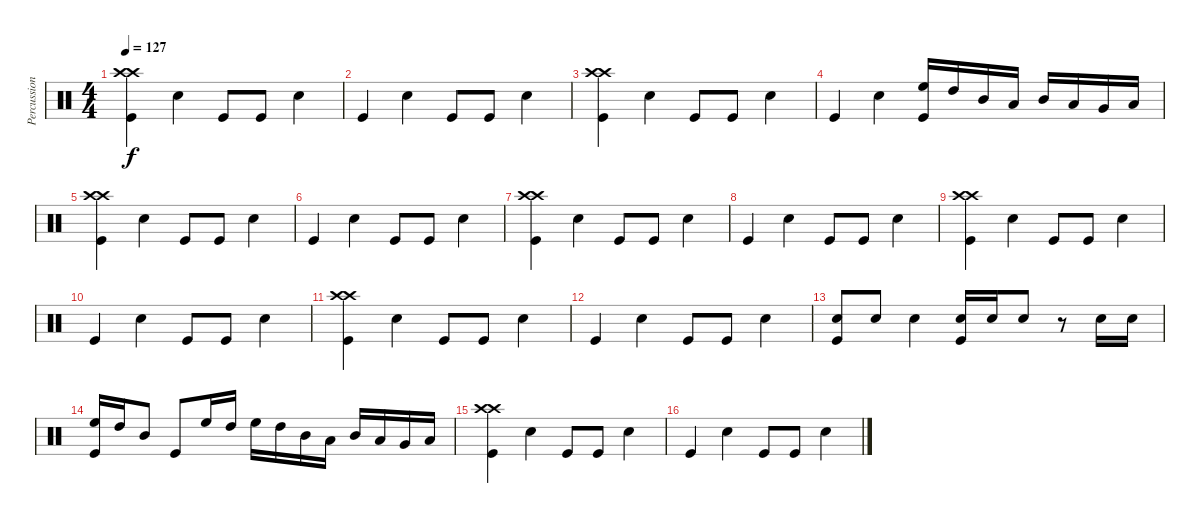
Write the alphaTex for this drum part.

\track ("Percussion" "Percussion") {instrument percussion}
\staff {score}
\articulation defaults
\ts (4 4)
\tempo 127
\clef neutral
\ks c
("Crash high (hit)" "Crash high (hit)" "Kick (hit)").4{dy f} "Snare (hit) 2".4 "Kick (hit)".8 "Kick (hit)".8 "Snare (hit) 2".4 |
"Kick (hit)".4 "Snare (hit) 2".4 "Kick (hit)".8 "Kick (hit)".8 "Snare (hit) 2".4 |
("Crash high (hit)" "Crash high (hit)" "Kick (hit)").4 "Snare (hit) 2".4 "Kick (hit)".8 "Kick (hit)".8 "Snare (hit) 2".4 |
"Kick (hit)".4 "Snare (hit) 2".4 ("High Floor Tom (hit)" "Kick (hit)").16 "High Tom (hit)".16 "Mid Tom (hit)".16 "Low Tom (hit)".16 "Mid Tom (hit)".16 "Low Tom (hit)".16 "Very Low Tom (hit)".16 "Low Floor Tom (hit)".16 |
("Crash high (hit)" "Crash high (hit)" "Kick (hit)").4 "Snare (hit) 2".4 "Kick (hit)".8 "Kick (hit)".8 "Snare (hit) 2".4 |
"Kick (hit)".4 "Snare (hit) 2".4 "Kick (hit)".8 "Kick (hit)".8 "Snare (hit) 2".4 |
("Crash high (hit)" "Crash high (hit)" "Kick (hit)").4 "Snare (hit) 2".4 "Kick (hit)".8 "Kick (hit)".8 "Snare (hit) 2".4 |
"Kick (hit)".4 "Snare (hit) 2".4 "Kick (hit)".8 "Kick (hit)".8 "Snare (hit) 2".4 |
("Crash high (hit)" "Crash high (hit)" "Kick (hit)").4 "Snare (hit) 2".4 "Kick (hit)".8 "Kick (hit)".8 "Snare (hit) 2".4 |
"Kick (hit)".4 "Snare (hit) 2".4 "Kick (hit)".8 "Kick (hit)".8 "Snare (hit) 2".4 |
("Crash high (hit)" "Crash high (hit)" "Kick (hit)").4 "Snare (hit) 2".4 "Kick (hit)".8 "Kick (hit)".8 "Snare (hit) 2".4 |
"Kick (hit)".4 "Snare (hit) 2".4 "Kick (hit)".8 "Kick (hit)".8 "Snare (hit) 2".4 |
("Snare (hit) 2" "Kick (hit)").8 "Snare (hit) 2".8 "Snare (hit) 2".4 ("Snare (hit) 2" "Kick (hit)").16 "Snare (hit) 2".16 "Snare (hit) 2".8 r.8 "Snare (hit) 2".16 "Snare (hit) 2".16 |
("High Floor Tom (hit)" "Kick (hit)").16 "High Tom (hit)".16 "Mid Tom (hit)".8 "Kick (hit)".8 "High Floor Tom (hit)".16 "High Tom (hit)".16 "High Floor Tom (hit)".16 "High Tom (hit)".16 "Mid Tom (hit)".16 "Low Tom (hit)".16 "Mid Tom (hit)".16 "Low Tom (hit)".16 "Very Low Tom (hit)".16 "Low Floor Tom (hit)".16 |
("Crash high (hit)" "Crash high (hit)" "Kick (hit)").4 "Snare (hit) 2".4 "Kick (hit)".8 "Kick (hit)".8 "Snare (hit) 2".4 |
"Kick (hit)".4 "Snare (hit) 2".4 "Kick (hit)".8 "Kick (hit)".8 "Snare (hit) 2".4
